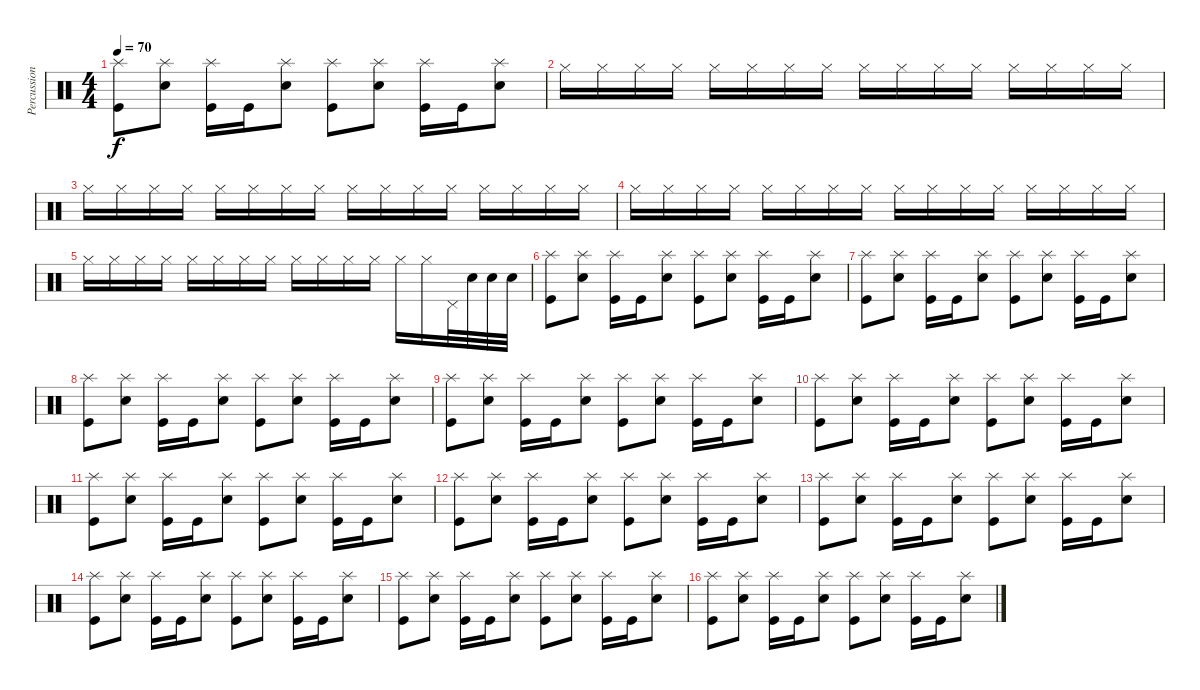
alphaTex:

\track ("Percussions" "Percussion") {instrument percussion}
\staff {score}
\articulation defaults
\ts (4 4)
\tempo 70
\clef neutral
\ks c
("Splash (hit)" "Kick (hit)").8{dy f} ("Splash (hit)" "Electric Snare (hit)").8 ("Splash (hit)" "Kick (hit)").16 "Kick (hit)".16 ("Splash (hit)" "Electric Snare (hit)").8 ("Splash (hit)" "Kick (hit)").8 ("Splash (hit)" "Electric Snare (hit)").8 ("Splash (hit)" "Kick (hit)").16 "Kick (hit)".16 ("Splash (hit)" "Electric Snare (hit)").8 |
"Hi-Hat (closed)".16 "Hi-Hat (closed)".16 "Hi-Hat (closed)".16 "Hi-Hat (closed)".16 "Hi-Hat (closed)".16 "Hi-Hat (closed)".16 "Hi-Hat (closed)".16 "Hi-Hat (closed)".16 "Hi-Hat (closed)".16 "Hi-Hat (closed)".16 "Hi-Hat (closed)".16 "Hi-Hat (closed)".16 "Hi-Hat (closed)".16 "Hi-Hat (closed)".16 "Hi-Hat (closed)".16 "Hi-Hat (closed)".16 |
"Hi-Hat (closed)".16 "Hi-Hat (closed)".16 "Hi-Hat (closed)".16 "Hi-Hat (closed)".16 "Hi-Hat (closed)".16 "Hi-Hat (closed)".16 "Hi-Hat (closed)".16 "Hi-Hat (closed)".16 "Hi-Hat (closed)".16 "Hi-Hat (closed)".16 "Hi-Hat (closed)".16 "Hi-Hat (closed)".16 "Hi-Hat (closed)".16 "Hi-Hat (closed)".16 "Hi-Hat (closed)".16 "Hi-Hat (closed)".16 |
"Hi-Hat (closed)".16 "Hi-Hat (closed)".16 "Hi-Hat (closed)".16 "Hi-Hat (closed)".16 "Hi-Hat (closed)".16 "Hi-Hat (closed)".16 "Hi-Hat (closed)".16 "Hi-Hat (closed)".16 "Hi-Hat (closed)".16 "Hi-Hat (closed)".16 "Hi-Hat (closed)".16 "Hi-Hat (closed)".16 "Hi-Hat (closed)".16 "Hi-Hat (closed)".16 "Hi-Hat (closed)".16 "Hi-Hat (closed)".16 |
"Hi-Hat (closed)".16 "Hi-Hat (closed)".16 "Hi-Hat (closed)".16 "Hi-Hat (closed)".16 "Hi-Hat (closed)".16 "Hi-Hat (closed)".16 "Hi-Hat (closed)".16 "Hi-Hat (closed)".16 "Hi-Hat (closed)".16 "Hi-Hat (closed)".16 "Hi-Hat (closed)".16 "Hi-Hat (closed)".16 "Hi-Hat (closed)".16 "Hi-Hat (closed)".16 "Pedal Hi-Hat (hit)".32 "Electric Snare (hit)".32 "Electric Snare (hit)".32 "Electric Snare (hit)".32 |
("Splash (hit)" "Kick (hit)").8 ("Splash (hit)" "Electric Snare (hit)").8 ("Splash (hit)" "Kick (hit)").16 "Kick (hit)".16 ("Splash (hit)" "Electric Snare (hit)").8 ("Splash (hit)" "Kick (hit)").8 ("Splash (hit)" "Electric Snare (hit)").8 ("Splash (hit)" "Kick (hit)").16 "Kick (hit)".16 ("Splash (hit)" "Electric Snare (hit)").8 |
("Splash (hit)" "Kick (hit)").8 ("Splash (hit)" "Electric Snare (hit)").8 ("Splash (hit)" "Kick (hit)").16 "Kick (hit)".16 ("Splash (hit)" "Electric Snare (hit)").8 ("Splash (hit)" "Kick (hit)").8 ("Splash (hit)" "Electric Snare (hit)").8 ("Splash (hit)" "Kick (hit)").16 "Kick (hit)".16 ("Splash (hit)" "Electric Snare (hit)").8 |
("Splash (hit)" "Kick (hit)").8 ("Splash (hit)" "Electric Snare (hit)").8 ("Splash (hit)" "Kick (hit)").16 "Kick (hit)".16 ("Splash (hit)" "Electric Snare (hit)").8 ("Splash (hit)" "Kick (hit)").8 ("Splash (hit)" "Electric Snare (hit)").8 ("Splash (hit)" "Kick (hit)").16 "Kick (hit)".16 ("Splash (hit)" "Electric Snare (hit)").8 |
("Splash (hit)" "Kick (hit)").8 ("Splash (hit)" "Electric Snare (hit)").8 ("Splash (hit)" "Kick (hit)").16 "Kick (hit)".16 ("Splash (hit)" "Electric Snare (hit)").8 ("Splash (hit)" "Kick (hit)").8 ("Splash (hit)" "Electric Snare (hit)").8 ("Splash (hit)" "Kick (hit)").16 "Kick (hit)".16 ("Splash (hit)" "Electric Snare (hit)").8 |
("Splash (hit)" "Kick (hit)").8 ("Splash (hit)" "Electric Snare (hit)").8 ("Splash (hit)" "Kick (hit)").16 "Kick (hit)".16 ("Splash (hit)" "Electric Snare (hit)").8 ("Splash (hit)" "Kick (hit)").8 ("Splash (hit)" "Electric Snare (hit)").8 ("Splash (hit)" "Kick (hit)").16 "Kick (hit)".16 ("Splash (hit)" "Electric Snare (hit)").8 |
("Splash (hit)" "Kick (hit)").8 ("Splash (hit)" "Electric Snare (hit)").8 ("Splash (hit)" "Kick (hit)").16 "Kick (hit)".16 ("Splash (hit)" "Electric Snare (hit)").8 ("Splash (hit)" "Kick (hit)").8 ("Splash (hit)" "Electric Snare (hit)").8 ("Splash (hit)" "Kick (hit)").16 "Kick (hit)".16 ("Splash (hit)" "Electric Snare (hit)").8 |
("Splash (hit)" "Kick (hit)").8 ("Splash (hit)" "Electric Snare (hit)").8 ("Splash (hit)" "Kick (hit)").16 "Kick (hit)".16 ("Splash (hit)" "Electric Snare (hit)").8 ("Splash (hit)" "Kick (hit)").8 ("Splash (hit)" "Electric Snare (hit)").8 ("Splash (hit)" "Kick (hit)").16 "Kick (hit)".16 ("Splash (hit)" "Electric Snare (hit)").8 |
("Splash (hit)" "Kick (hit)").8 ("Splash (hit)" "Electric Snare (hit)").8 ("Splash (hit)" "Kick (hit)").16 "Kick (hit)".16 ("Splash (hit)" "Electric Snare (hit)").8 ("Splash (hit)" "Kick (hit)").8 ("Splash (hit)" "Electric Snare (hit)").8 ("Splash (hit)" "Kick (hit)").16 "Kick (hit)".16 ("Splash (hit)" "Electric Snare (hit)").8 |
("Splash (hit)" "Kick (hit)").8 ("Splash (hit)" "Electric Snare (hit)").8 ("Splash (hit)" "Kick (hit)").16 "Kick (hit)".16 ("Splash (hit)" "Electric Snare (hit)").8 ("Splash (hit)" "Kick (hit)").8 ("Splash (hit)" "Electric Snare (hit)").8 ("Splash (hit)" "Kick (hit)").16 "Kick (hit)".16 ("Splash (hit)" "Electric Snare (hit)").8 |
("Splash (hit)" "Kick (hit)").8 ("Splash (hit)" "Electric Snare (hit)").8 ("Splash (hit)" "Kick (hit)").16 "Kick (hit)".16 ("Splash (hit)" "Electric Snare (hit)").8 ("Splash (hit)" "Kick (hit)").8 ("Splash (hit)" "Electric Snare (hit)").8 ("Splash (hit)" "Kick (hit)").16 "Kick (hit)".16 ("Splash (hit)" "Electric Snare (hit)").8 |
("Splash (hit)" "Kick (hit)").8 ("Splash (hit)" "Electric Snare (hit)").8 ("Splash (hit)" "Kick (hit)").16 "Kick (hit)".16 ("Splash (hit)" "Electric Snare (hit)").8 ("Splash (hit)" "Kick (hit)").8 ("Splash (hit)" "Electric Snare (hit)").8 ("Splash (hit)" "Kick (hit)").16 "Kick (hit)".16 ("Splash (hit)" "Electric Snare (hit)").8
